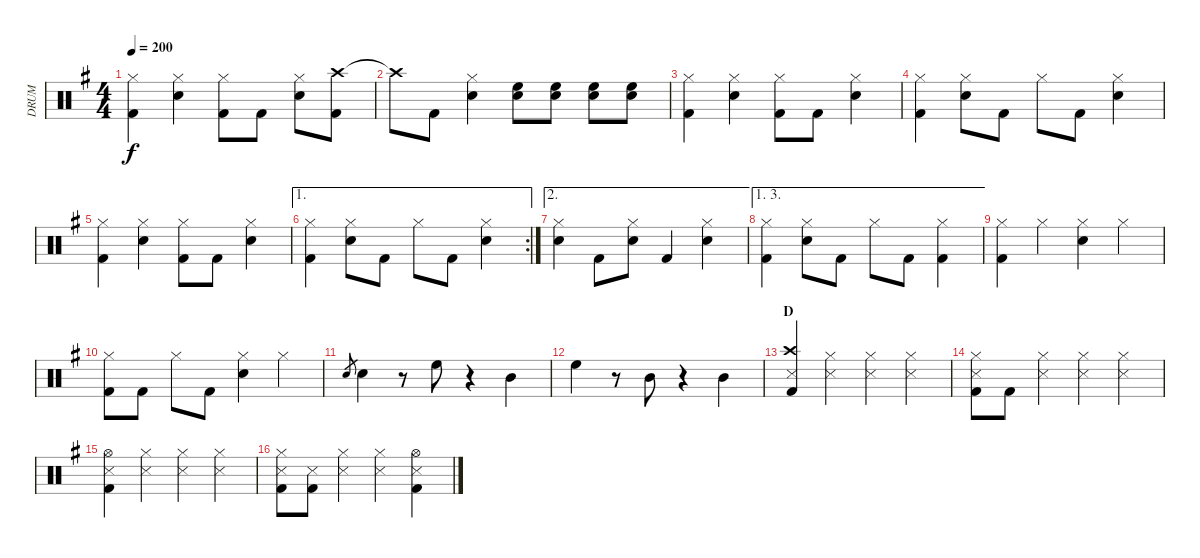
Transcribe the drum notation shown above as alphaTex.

\track ("DRUM" "DRUM") {instrument percussion}
\staff {score}
\articulation defaults
\ts (4 4)
\tempo 200
\clef neutral
\ks eminor
("Hi-Hat (closed)" "Kick (hit) 2").4{dy f} ("Hi-Hat (closed)" "Snare (hit) 2").4 ("Hi-Hat (closed)" "Kick (hit) 2").8 "Kick (hit) 2".8 ("Hi-Hat (closed)" "Snare (hit) 2").8 ("Crash high (hit)" "Kick (hit) 2").8 |
"Crash high (hit)"{t}.8 "Kick (hit) 2".8 ("Hi-Hat (closed)" "Snare (hit) 2").4 ("Snare (hit) 2" "High Floor Tom (hit)").8 ("Snare (hit) 2" "High Floor Tom (hit)").8 ("Snare (hit) 2" "High Floor Tom (hit)").8 ("Snare (hit) 2" "High Floor Tom (hit)").8 |
("Hi-Hat (closed)" "Kick (hit) 2").4 ("Hi-Hat (closed)" "Snare (hit) 2").4 ("Hi-Hat (closed)" "Kick (hit) 2").8 "Kick (hit) 2".8 ("Hi-Hat (closed)" "Snare (hit) 2").4 |
("Hi-Hat (closed)" "Kick (hit) 2").4 ("Hi-Hat (closed)" "Snare (hit) 2").8 "Kick (hit) 2".8 "Hi-Hat (closed)".8 "Kick (hit) 2".8 ("Hi-Hat (closed)" "Snare (hit) 2").4 |
("Hi-Hat (closed)" "Kick (hit) 2").4 ("Hi-Hat (closed)" "Snare (hit) 2").4 ("Hi-Hat (closed)" "Kick (hit) 2").8 "Kick (hit) 2".8 ("Hi-Hat (closed)" "Snare (hit) 2").4 |
\ae 1
\rc 2
("Hi-Hat (closed)" "Kick (hit) 2").4 ("Hi-Hat (closed)" "Snare (hit) 2").8 "Kick (hit) 2".8 "Hi-Hat (closed)".8 "Kick (hit) 2".8 ("Hi-Hat (closed)" "Snare (hit) 2").4 |
\ae 2
("Hi-Hat (closed)" "Snare (hit) 2").4 "Kick (hit) 2".8 ("Hi-Hat (closed)" "Snare (hit) 2").8 "Kick (hit) 2".4 ("Hi-Hat (closed)" "Snare (hit) 2").4 |
\ae (1 3)
("Hi-Hat (closed)" "Kick (hit) 2").4 ("Hi-Hat (closed)" "Snare (hit) 2").8 "Kick (hit) 2".8 "Hi-Hat (closed)".8 "Kick (hit) 2".8 ("Hi-Hat (closed)" "Kick (hit) 2").4 |
("Hi-Hat (closed)" "Kick (hit) 2").4 "Hi-Hat (closed)".4 ("Hi-Hat (closed)" "Snare (hit) 2").4 "Hi-Hat (closed)".4 |
("Hi-Hat (closed)" "Kick (hit) 2").8 "Kick (hit) 2".8 "Hi-Hat (closed)".8 "Kick (hit) 2".8 ("Hi-Hat (closed)" "Snare (hit) 2").4 "Hi-Hat (closed)".4 |
"Snare (hit)".8{gr} "Snare (hit) 2".4 r.8 "High Floor Tom (hit)".8 r.4 "Mid Tom (hit)".4 |
"High Floor Tom (hit)".4 r.8 "Mid Tom (hit)".8 r.4 "Mid Tom (hit)".4 |
\section ("" "D")
("Crash high (hit)" "Snare (side stick) 3" "Kick (hit) 2").4 ("Hi-Hat (closed)" "Snare (side stick) 3").4 ("Hi-Hat (closed)" "Snare (side stick) 3").4 ("Hi-Hat (closed)" "Snare (side stick) 3").4 |
("Hi-Hat (closed)" "Snare (side stick) 3" "Kick (hit) 2").8 "Kick (hit) 2".8 ("Hi-Hat (closed)" "Snare (side stick) 3").4 ("Hi-Hat (closed)" "Snare (side stick) 3").4 ("Hi-Hat (closed)" "Snare (side stick) 3").4 |
("Hi-Hat (open)" "Snare (side stick) 3" "Kick (hit) 2").4 ("Hi-Hat (closed)" "Snare (side stick) 3").4 ("Hi-Hat (closed)" "Snare (side stick) 3").4 ("Hi-Hat (closed)" "Snare (side stick) 3").4 |
("Hi-Hat (closed)" "Snare (side stick) 3" "Kick (hit) 2").8 ("Snare (side stick) 3" "Kick (hit) 2").8 ("Hi-Hat (closed)" "Snare (side stick) 3").4 ("Hi-Hat (closed)" "Snare (side stick) 3").4 ("Hi-Hat (open)" "Snare (side stick) 3" "Kick (hit) 2").4
